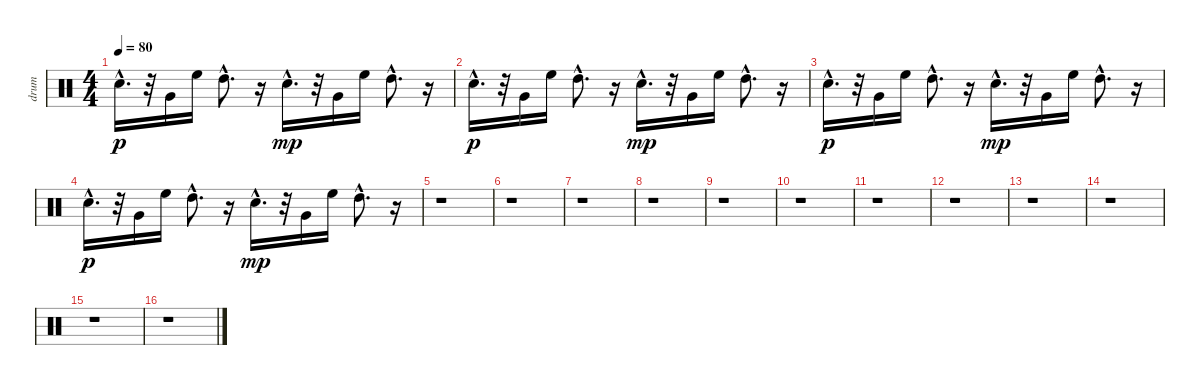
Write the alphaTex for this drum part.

\track ("drum" "drum") {instrument percussion}
\staff {score}
\articulation defaults
\ts (4 4)
\tempo 80
\clef neutral
\ks c "Electric Snare (hit)"{hac}.16{d dy p}
r.32 "Very Low Tom (hit)".16 "High Floor Tom (hit)".16 "High Tom (hit)"{hac}.8{d} r.16 "Electric Snare (hit)"{hac}.16{d dy mp} r.32 "Very Low Tom (hit)".16 "High Floor Tom (hit)".16 "High Tom (hit)"{hac}.8{d} r.16 |
"Electric Snare (hit)"{hac}.16{d dy p} r.32 "Very Low Tom (hit)".16 "High Floor Tom (hit)".16 "High Tom (hit)"{hac}.8{d} r.16 "Electric Snare (hit)"{hac}.16{d dy mp} r.32 "Very Low Tom (hit)".16 "High Floor Tom (hit)".16 "High Tom (hit)"{hac}.8{d} r.16 |
"Electric Snare (hit)"{hac}.16{d dy p} r.32 "Very Low Tom (hit)".16 "High Floor Tom (hit)".16 "High Tom (hit)"{hac}.8{d} r.16 "Electric Snare (hit)"{hac}.16{d dy mp} r.32 "Very Low Tom (hit)".16 "High Floor Tom (hit)".16 "High Tom (hit)"{hac}.8{d} r.16 |
"Electric Snare (hit)"{hac}.16{d dy p} r.32 "Very Low Tom (hit)".16 "High Floor Tom (hit)".16 "High Tom (hit)"{hac}.8{d} r.16 "Electric Snare (hit)"{hac}.16{d dy mp} r.32 "Very Low Tom (hit)".16 "High Floor Tom (hit)".16 "High Tom (hit)"{hac}.8{d} r.16 |
r.1 |
r.1 |
r.1 |
r.1 |
r.1 |
r.1 |
r.1 |
r.1 |
r.1 |
r.1 |
r.1 |
r.1
